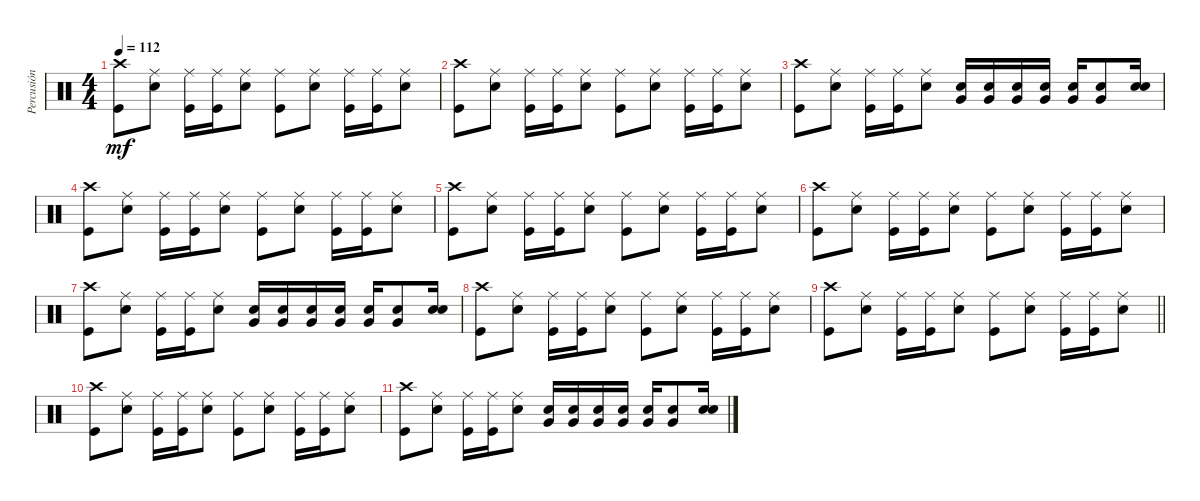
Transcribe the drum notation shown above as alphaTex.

\track ("Percusión" "Percusión") {instrument percussion}
\staff {score}
\articulation defaults
\ts (4 4)
\tempo 112
\clef neutral
\ks c
("Crash high (hit)" "Kick (hit)").8{dy mf} ("Ride (middle)" "Snare (hit) 2").8 ("Ride (middle)" "Kick (hit)").16 ("Ride (middle)" "Kick (hit)").16 ("Ride (middle)" "Snare (hit) 2").8 ("Ride (middle)" "Kick (hit)").8 ("Ride (middle)" "Snare (hit) 2").8 ("Ride (middle)" "Kick (hit)").16 ("Ride (middle)" "Kick (hit)").16 ("Ride (middle)" "Snare (hit) 2").8 |
("Crash high (hit)" "Kick (hit)").8 ("Ride (middle)" "Snare (hit) 2").8 ("Ride (middle)" "Kick (hit)").16 ("Ride (middle)" "Kick (hit)").16 ("Ride (middle)" "Snare (hit) 2").8 ("Ride (middle)" "Kick (hit)").8 ("Ride (middle)" "Snare (hit) 2").8 ("Ride (middle)" "Kick (hit)").16 ("Ride (middle)" "Kick (hit)").16 ("Ride (middle)" "Snare (hit) 2").8 |
("Crash high (hit)" "Kick (hit)").8 ("Ride (middle)" "Snare (hit) 2").8 ("Ride (middle)" "Kick (hit)").16 ("Ride (middle)" "Kick (hit)").16 ("Ride (middle)" "Snare (hit) 2").8 ("Very Low Tom (hit)" "Snare (hit) 2").16 ("Very Low Tom (hit)" "Snare (hit) 2").16 ("Very Low Tom (hit)" "Snare (hit) 2").16 ("Very Low Tom (hit)" "Snare (hit) 2").16 ("Very Low Tom (hit)" "Snare (hit) 2").16 ("Very Low Tom (hit)" "Snare (hit) 2").8 ("Snare (hit) 2" "Snare (hit) 2").16 |
("Crash high (hit)" "Kick (hit)").8 ("Ride (middle)" "Snare (hit) 2").8 ("Ride (middle)" "Kick (hit)").16 ("Ride (middle)" "Kick (hit)").16 ("Ride (middle)" "Snare (hit) 2").8 ("Ride (middle)" "Kick (hit)").8 ("Ride (middle)" "Snare (hit) 2").8 ("Ride (middle)" "Kick (hit)").16 ("Ride (middle)" "Kick (hit)").16 ("Ride (middle)" "Snare (hit) 2").8 |
("Crash high (hit)" "Kick (hit)").8 ("Ride (middle)" "Snare (hit) 2").8 ("Ride (middle)" "Kick (hit)").16 ("Ride (middle)" "Kick (hit)").16 ("Ride (middle)" "Snare (hit) 2").8 ("Ride (middle)" "Kick (hit)").8 ("Ride (middle)" "Snare (hit) 2").8 ("Ride (middle)" "Kick (hit)").16 ("Ride (middle)" "Kick (hit)").16 ("Ride (middle)" "Snare (hit) 2").8 |
("Crash high (hit)" "Kick (hit)").8 ("Ride (middle)" "Snare (hit) 2").8 ("Ride (middle)" "Kick (hit)").16 ("Ride (middle)" "Kick (hit)").16 ("Ride (middle)" "Snare (hit) 2").8 ("Ride (middle)" "Kick (hit)").8 ("Ride (middle)" "Snare (hit) 2").8 ("Ride (middle)" "Kick (hit)").16 ("Ride (middle)" "Kick (hit)").16 ("Ride (middle)" "Snare (hit) 2").8 |
("Crash high (hit)" "Kick (hit)").8 ("Ride (middle)" "Snare (hit) 2").8 ("Ride (middle)" "Kick (hit)").16 ("Ride (middle)" "Kick (hit)").16 ("Ride (middle)" "Snare (hit) 2").8 ("Very Low Tom (hit)" "Snare (hit) 2").16 ("Very Low Tom (hit)" "Snare (hit) 2").16 ("Very Low Tom (hit)" "Snare (hit) 2").16 ("Very Low Tom (hit)" "Snare (hit) 2").16 ("Very Low Tom (hit)" "Snare (hit) 2").16 ("Very Low Tom (hit)" "Snare (hit) 2").8 ("Snare (hit) 2" "Snare (hit) 2").16 |
("Crash high (hit)" "Kick (hit)").8 ("Ride (middle)" "Snare (hit) 2").8 ("Ride (middle)" "Kick (hit)").16 ("Ride (middle)" "Kick (hit)").16 ("Ride (middle)" "Snare (hit) 2").8 ("Ride (middle)" "Kick (hit)").8 ("Ride (middle)" "Snare (hit) 2").8 ("Ride (middle)" "Kick (hit)").16 ("Ride (middle)" "Kick (hit)").16 ("Ride (middle)" "Snare (hit) 2").8 |
\barLineRight lightlight
("Crash high (hit)" "Kick (hit)").8 ("Ride (middle)" "Snare (hit) 2").8 ("Ride (middle)" "Kick (hit)").16 ("Ride (middle)" "Kick (hit)").16 ("Ride (middle)" "Snare (hit) 2").8 ("Ride (middle)" "Kick (hit)").8 ("Ride (middle)" "Snare (hit) 2").8 ("Ride (middle)" "Kick (hit)").16 ("Ride (middle)" "Kick (hit)").16 ("Ride (middle)" "Snare (hit) 2").8 |
("Crash high (hit)" "Kick (hit)").8 ("Ride (middle)" "Snare (hit) 2").8 ("Ride (middle)" "Kick (hit)").16 ("Ride (middle)" "Kick (hit)").16 ("Ride (middle)" "Snare (hit) 2").8 ("Ride (middle)" "Kick (hit)").8 ("Ride (middle)" "Snare (hit) 2").8 ("Ride (middle)" "Kick (hit)").16 ("Ride (middle)" "Kick (hit)").16 ("Ride (middle)" "Snare (hit) 2").8 |
("Crash high (hit)" "Kick (hit)").8 ("Ride (middle)" "Snare (hit) 2").8 ("Ride (middle)" "Kick (hit)").16 ("Ride (middle)" "Kick (hit)").16 ("Ride (middle)" "Snare (hit) 2").8 ("Very Low Tom (hit)" "Snare (hit) 2").16 ("Very Low Tom (hit)" "Snare (hit) 2").16 ("Very Low Tom (hit)" "Snare (hit) 2").16 ("Very Low Tom (hit)" "Snare (hit) 2").16 ("Very Low Tom (hit)" "Snare (hit) 2").16 ("Very Low Tom (hit)" "Snare (hit) 2").8 ("Snare (hit) 2" "Snare (hit) 2").16
